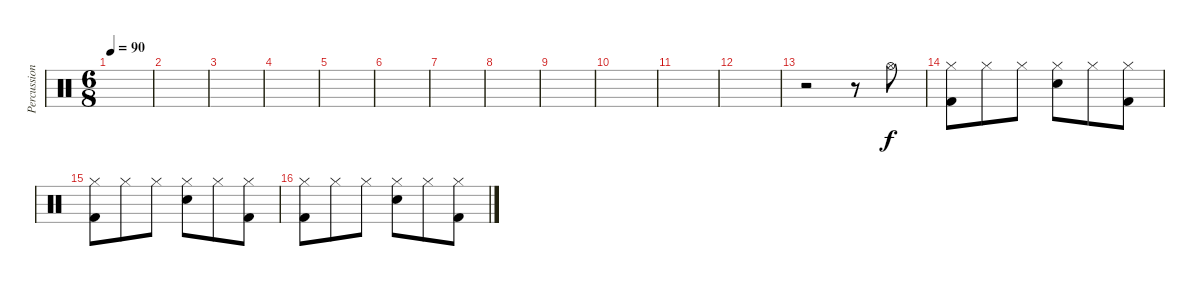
\track ("Percussion" "Percussion") {instrument percussion}
\staff {score}
\articulation defaults
\ts (6 8)
\tempo 90
\clef neutral
\ks c
|
|
|
|
|
|
|
|
|
|
|
|
r.2 r.8 "Hi-Hat (open)".8 |
("Hi-Hat (closed)" "Kick (hit) 2").8 "Hi-Hat (closed)".8 "Hi-Hat (closed)".8 ("Hi-Hat (closed)" "Snare (hit) 2").8 "Hi-Hat (closed)".8 ("Hi-Hat (closed)" "Kick (hit) 2").8 |
("Hi-Hat (closed)" "Kick (hit) 2").8 "Hi-Hat (closed)".8 "Hi-Hat (closed)".8 ("Hi-Hat (closed)" "Snare (hit) 2").8 "Hi-Hat (closed)".8 ("Hi-Hat (closed)" "Kick (hit) 2").8 |
("Hi-Hat (closed)" "Kick (hit) 2").8 "Hi-Hat (closed)".8 "Hi-Hat (closed)".8 ("Hi-Hat (closed)" "Snare (hit) 2").8 "Hi-Hat (closed)".8 ("Hi-Hat (closed)" "Kick (hit) 2").8
